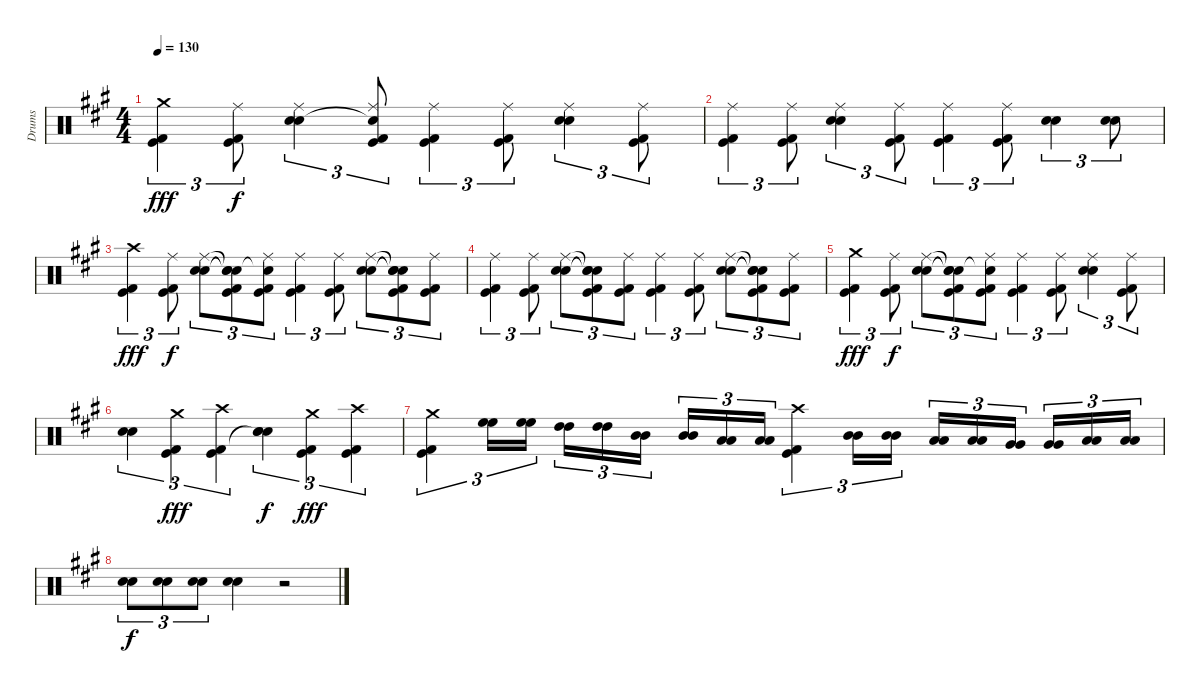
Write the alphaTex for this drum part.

\track ("Drums" "Drums") {instrument percussion}
\staff {score}
\articulation defaults
\ts (4 4)
\tempo 130
\clef neutral
\ks a
("Crash medium (hit)" "Kick (hit)" "Kick (hit) 2").4{tu (3 2) dy fff} ("Ride (middle)" "Kick (hit)" "Kick (hit) 2").8{tu (3 2) dy f} ("Ride (middle)" "Electric Snare (hit)" "Snare (hit) 2").4{tu (3 2)} ("Ride (middle)" "Snare (hit)"{t} "Kick (hit)" "Kick (hit) 2").8{tu (3 2)} ("Ride (middle)" "Kick (hit)" "Kick (hit) 2").4{tu (3 2)} ("Ride (middle)" "Kick (hit)" "Kick (hit) 2").8{tu (3 2)} ("Ride (middle)" "Electric Snare (hit)" "Snare (hit) 2").4{tu (3 2)} ("Ride (middle)" "Kick (hit)" "Kick (hit) 2").8{tu (3 2)} |
("Ride (middle)" "Kick (hit)" "Kick (hit) 2").4{tu (3 2)} ("Ride (middle)" "Kick (hit)" "Kick (hit) 2").8{tu (3 2)} ("Ride (middle)" "Electric Snare (hit)" "Snare (hit) 2").4{tu (3 2)} ("Ride (middle)" "Kick (hit)" "Kick (hit) 2").8{tu (3 2)} ("Ride (middle)" "Kick (hit)" "Kick (hit) 2").4{tu (3 2)} ("Ride (middle)" "Kick (hit)" "Kick (hit) 2").8{tu (3 2)} ("Electric Snare (hit)" "Snare (hit) 2").4{tu (3 2)} ("Electric Snare (hit)" "Snare (hit) 2").8{tu (3 2)} |
("Crash high (hit)" "Kick (hit)" "Kick (hit) 2").4{tu (3 2) dy fff} ("Ride (middle)" "Kick (hit)" "Kick (hit) 2").8{tu (3 2) dy f} ("Ride (middle)" "Electric Snare (hit)" "Snare (hit) 2").8{tu (3 2)} ("Snare (hit)"{t} "Snare (hit)"{t} "Snare (hit)"{t} "Kick (hit)" "Kick (hit) 2").8{tu (3 2)} ("Ride (middle)" "Snare (hit)"{t} "Kick (hit)" "Kick (hit) 2").8{tu (3 2)} ("Ride (middle)" "Kick (hit)" "Kick (hit) 2").4{tu (3 2)} ("Ride (middle)" "Kick (hit)" "Kick (hit) 2").8{tu (3 2)} ("Ride (middle)" "Electric Snare (hit)" "Snare (hit) 2").8{tu (3 2)} ("Snare (hit)"{t} "Snare (hit)"{t} "Snare (hit)"{t} "Kick (hit)" "Kick (hit) 2").8{tu (3 2)} ("Ride (middle)" "Kick (hit)" "Kick (hit) 2").8{tu (3 2)} |
("Ride (middle)" "Kick (hit)" "Kick (hit) 2").4{tu (3 2)} ("Ride (middle)" "Kick (hit)" "Kick (hit) 2").8{tu (3 2)} ("Ride (middle)" "Electric Snare (hit)" "Snare (hit) 2").8{tu (3 2)} ("Snare (hit)"{t} "Snare (hit)"{t} "Snare (hit)"{t} "Kick (hit)" "Kick (hit) 2").8{tu (3 2)} ("Ride (middle)" "Kick (hit)" "Kick (hit) 2").8{tu (3 2)} ("Ride (middle)" "Kick (hit)" "Kick (hit) 2").4{tu (3 2)} ("Ride (middle)" "Kick (hit)" "Kick (hit) 2").8{tu (3 2)} ("Ride (middle)" "Electric Snare (hit)" "Snare (hit) 2").8{tu (3 2)} ("Snare (hit)"{t} "Snare (hit)"{t} "Snare (hit)"{t} "Kick (hit)" "Kick (hit) 2").8{tu (3 2)} ("Ride (middle)" "Kick (hit)" "Kick (hit) 2").8{tu (3 2)} |
("Crash medium (hit)" "Kick (hit)" "Kick (hit) 2").4{tu (3 2) dy fff} ("Ride (middle)" "Kick (hit)" "Kick (hit) 2").8{tu (3 2) dy f} ("Ride (middle)" "Electric Snare (hit)" "Snare (hit) 2").8{tu (3 2)} ("Snare (hit)"{t} "Snare (hit)"{t} "Snare (hit)"{t} "Kick (hit)" "Kick (hit) 2").8{tu (3 2)} ("Ride (middle)" "Snare (hit)"{t} "Kick (hit)" "Kick (hit) 2").8{tu (3 2)} ("Ride (middle)" "Kick (hit)" "Kick (hit) 2").4{tu (3 2)} ("Ride (middle)" "Kick (hit)" "Kick (hit) 2").8{tu (3 2)} ("Ride (middle)" "Electric Snare (hit)" "Snare (hit) 2").4{tu (3 2)} ("Ride (middle)" "Kick (hit)" "Kick (hit) 2").8{tu (3 2)} |
("Electric Snare (hit)" "Snare (hit) 2").4{tu (3 2)} ("Crash medium (hit)" "Kick (hit)" "Kick (hit) 2").4{tu (3 2) dy fff} ("Crash high (hit)" "Kick (hit)" "Kick (hit) 2").4{tu (3 2)} ("Electric Snare (hit)" "Snare (hit) 2" "Snare (hit)"{t}).4{tu (3 2) dy f} ("Crash medium (hit)" "Kick (hit)" "Kick (hit) 2").4{tu (3 2) dy fff} ("Crash high (hit)" "Kick (hit)" "Kick (hit) 2").4{tu (3 2)} |
("Crash medium (hit)" "Kick (hit)" "Kick (hit) 2").4{tu (3 2)} ("High Floor Tom (hit)" "High Floor Tom (hit)").16{tu (3 2)} ("High Floor Tom (hit)" "High Floor Tom (hit)").16{tu (3 2)} ("High Tom (hit)" "High Tom (hit)").16{tu (3 2)} ("High Tom (hit)" "High Tom (hit)").16{tu (3 2)} ("Mid Tom (hit)" "Mid Tom (hit)").16{tu (3 2)} ("Mid Tom (hit)" "Mid Tom (hit)").16{tu (3 2)} ("Low Tom (hit)" "Low Tom (hit)").16{tu (3 2)} ("Low Tom (hit)" "Low Tom (hit)").16{tu (3 2)} ("Crash high (hit)" "Kick (hit)" "Kick (hit) 2").4{tu (3 2)} ("Mid Tom (hit)" "Mid Tom (hit)").16{tu (3 2)} ("Mid Tom (hit)" "Mid Tom (hit)").16{tu (3 2)} ("Low Tom (hit)" "Low Tom (hit)").16{tu (3 2)} ("Low Tom (hit)" "Low Tom (hit)").16{tu (3 2)} ("Very Low Tom (hit)" "Very Low Tom (hit)").16{tu (3 2)} ("Very Low Tom (hit)" "Very Low Tom (hit)").16{tu (3 2)} ("Low Floor Tom (hit)" "Low Floor Tom (hit)").16{tu (3 2)} ("Low Floor Tom (hit)" "Low Floor Tom (hit)").16{tu (3 2)} |
("Electric Snare (hit)" "Snare (hit) 2").8{tu (3 2) dy f} ("Electric Snare (hit)" "Snare (hit) 2").8{tu (3 2)} ("Electric Snare (hit)" "Snare (hit) 2").8{tu (3 2)} ("Electric Snare (hit)" "Snare (hit) 2").4 r.2
